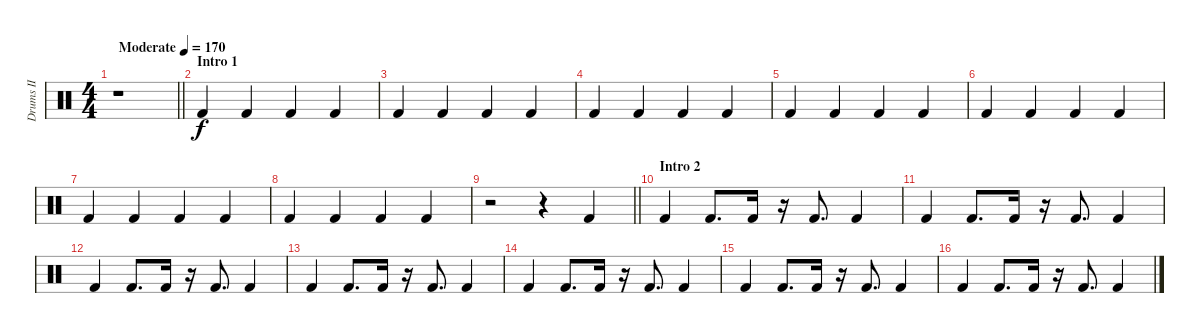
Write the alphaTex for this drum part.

\track ("Drums II" "Drums II") {instrument percussion}
\staff {score}
\articulation defaults
\ts (4 4)
\tempo (170 "Moderate")
\clef neutral
\barLineRight lightlight
\ks c
r.1{dy f} |
\section ("" "Intro 1")
"Kick (hit) 2".4 "Kick (hit) 2".4 "Kick (hit) 2".4 "Kick (hit) 2".4 |
"Kick (hit) 2".4 "Kick (hit) 2".4 "Kick (hit) 2".4 "Kick (hit) 2".4 |
"Kick (hit) 2".4 "Kick (hit) 2".4 "Kick (hit) 2".4 "Kick (hit) 2".4 |
"Kick (hit) 2".4 "Kick (hit) 2".4 "Kick (hit) 2".4 "Kick (hit) 2".4 |
"Kick (hit) 2".4 "Kick (hit) 2".4 "Kick (hit) 2".4 "Kick (hit) 2".4 |
"Kick (hit) 2".4 "Kick (hit) 2".4 "Kick (hit) 2".4 "Kick (hit) 2".4 |
"Kick (hit) 2".4 "Kick (hit) 2".4 "Kick (hit) 2".4 "Kick (hit) 2".4 |
\barLineRight lightlight
r.2 r.4 "Kick (hit) 2".4 |
\section ("" "Intro 2")
"Kick (hit) 2".4 "Kick (hit) 2".8{d} "Kick (hit) 2".16 r.16 "Kick (hit) 2".8{d} "Kick (hit) 2".4 |
"Kick (hit) 2".4 "Kick (hit) 2".8{d} "Kick (hit) 2".16 r.16 "Kick (hit) 2".8{d} "Kick (hit) 2".4 |
"Kick (hit) 2".4 "Kick (hit) 2".8{d} "Kick (hit) 2".16 r.16 "Kick (hit) 2".8{d} "Kick (hit) 2".4 |
"Kick (hit) 2".4 "Kick (hit) 2".8{d} "Kick (hit) 2".16 r.16 "Kick (hit) 2".8{d} "Kick (hit) 2".4 |
"Kick (hit) 2".4 "Kick (hit) 2".8{d} "Kick (hit) 2".16 r.16 "Kick (hit) 2".8{d} "Kick (hit) 2".4 |
"Kick (hit) 2".4 "Kick (hit) 2".8{d} "Kick (hit) 2".16 r.16 "Kick (hit) 2".8{d} "Kick (hit) 2".4 |
"Kick (hit) 2".4 "Kick (hit) 2".8{d} "Kick (hit) 2".16 r.16 "Kick (hit) 2".8{d} "Kick (hit) 2".4
